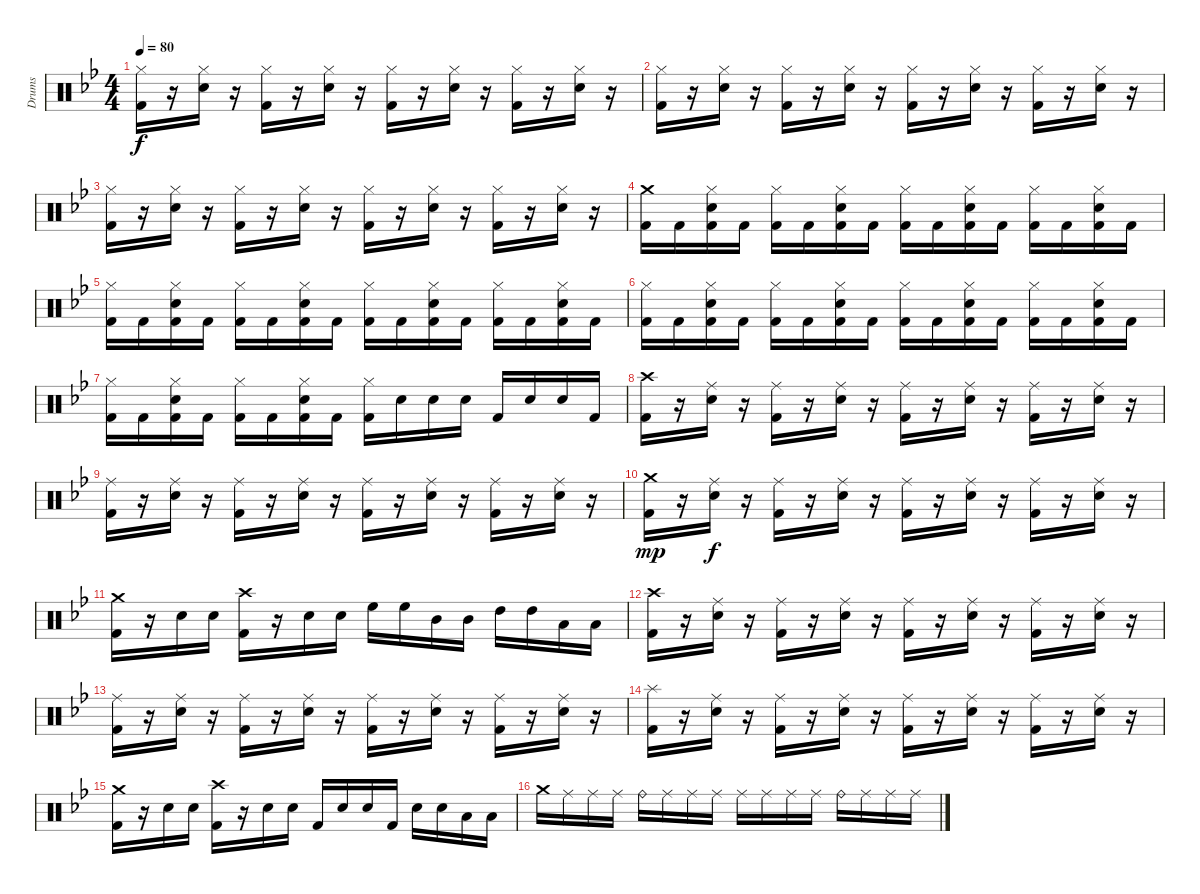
\track ("Drums" "Drums") {instrument percussion}
\staff {score}
\articulation defaults
\ts (4 4)
\tempo 80
\clef neutral
\ks gminor
("Kick (hit) 2" "Hi-Hat (closed)").16{dy f} r.16 ("Electric Snare (hit)" "Hi-Hat (closed)").16 r.16 ("Kick (hit) 2" "Hi-Hat (closed)").16 r.16 ("Electric Snare (hit)" "Hi-Hat (closed)").16 r.16 ("Kick (hit) 2" "Hi-Hat (closed)").16 r.16 ("Electric Snare (hit)" "Hi-Hat (closed)").16 r.16 ("Kick (hit) 2" "Hi-Hat (closed)").16 r.16 ("Electric Snare (hit)" "Hi-Hat (closed)").16 r.16 |
("Kick (hit) 2" "Hi-Hat (closed)").16 r.16 ("Electric Snare (hit)" "Hi-Hat (closed)").16 r.16 ("Kick (hit) 2" "Hi-Hat (closed)").16 r.16 ("Electric Snare (hit)" "Hi-Hat (closed)").16 r.16 ("Kick (hit) 2" "Hi-Hat (closed)").16 r.16 ("Electric Snare (hit)" "Hi-Hat (closed)").16 r.16 ("Kick (hit) 2" "Hi-Hat (closed)").16 r.16 ("Electric Snare (hit)" "Hi-Hat (closed)").16 r.16 |
("Kick (hit) 2" "Hi-Hat (closed)").16 r.16 ("Electric Snare (hit)" "Hi-Hat (closed)").16 r.16 ("Kick (hit) 2" "Hi-Hat (closed)").16 r.16 ("Electric Snare (hit)" "Hi-Hat (closed)").16 r.16 ("Kick (hit) 2" "Hi-Hat (closed)").16 r.16 ("Electric Snare (hit)" "Hi-Hat (closed)").16 r.16 ("Kick (hit) 2" "Hi-Hat (closed)").16 r.16 ("Electric Snare (hit)" "Hi-Hat (closed)").16 r.16 |
("Kick (hit) 2" "Crash medium (hit)").16 "Kick (hit) 2".16 ("Kick (hit) 2" "Electric Snare (hit)" "Hi-Hat (closed)").16 "Kick (hit) 2".16 ("Kick (hit) 2" "Hi-Hat (closed)").16 "Kick (hit) 2".16 ("Kick (hit) 2" "Electric Snare (hit)" "Hi-Hat (closed)").16 "Kick (hit) 2".16 ("Kick (hit) 2" "Hi-Hat (closed)").16 "Kick (hit) 2".16 ("Kick (hit) 2" "Electric Snare (hit)" "Hi-Hat (closed)").16 "Kick (hit) 2".16 ("Kick (hit) 2" "Hi-Hat (closed)").16 "Kick (hit) 2".16 ("Kick (hit) 2" "Electric Snare (hit)" "Hi-Hat (closed)").16 "Kick (hit) 2".16 |
("Kick (hit) 2" "Hi-Hat (closed)").16 "Kick (hit) 2".16 ("Kick (hit) 2" "Electric Snare (hit)" "Hi-Hat (closed)").16 "Kick (hit) 2".16 ("Kick (hit) 2" "Hi-Hat (closed)").16 "Kick (hit) 2".16 ("Kick (hit) 2" "Electric Snare (hit)" "Hi-Hat (closed)").16 "Kick (hit) 2".16 ("Kick (hit) 2" "Hi-Hat (closed)").16 "Kick (hit) 2".16 ("Kick (hit) 2" "Electric Snare (hit)" "Hi-Hat (closed)").16 "Kick (hit) 2".16 ("Kick (hit) 2" "Hi-Hat (closed)").16 "Kick (hit) 2".16 ("Kick (hit) 2" "Electric Snare (hit)" "Hi-Hat (closed)").16 "Kick (hit) 2".16 |
("Kick (hit) 2" "Hi-Hat (closed)").16 "Kick (hit) 2".16 ("Kick (hit) 2" "Electric Snare (hit)" "Hi-Hat (closed)").16 "Kick (hit) 2".16 ("Kick (hit) 2" "Hi-Hat (closed)").16 "Kick (hit) 2".16 ("Kick (hit) 2" "Electric Snare (hit)" "Hi-Hat (closed)").16 "Kick (hit) 2".16 ("Kick (hit) 2" "Hi-Hat (closed)").16 "Kick (hit) 2".16 ("Kick (hit) 2" "Electric Snare (hit)" "Hi-Hat (closed)").16 "Kick (hit) 2".16 ("Kick (hit) 2" "Hi-Hat (closed)").16 "Kick (hit) 2".16 ("Kick (hit) 2" "Electric Snare (hit)" "Hi-Hat (closed)").16 "Kick (hit) 2".16 |
("Kick (hit) 2" "Hi-Hat (closed)").16 "Kick (hit) 2".16 ("Kick (hit) 2" "Electric Snare (hit)" "Hi-Hat (closed)").16 "Kick (hit) 2".16 ("Kick (hit) 2" "Hi-Hat (closed)").16 "Kick (hit) 2".16 ("Kick (hit) 2" "Electric Snare (hit)" "Hi-Hat (closed)").16 "Kick (hit) 2".16 ("Kick (hit) 2" "Hi-Hat (closed)").16 "Electric Snare (hit)".16 "Electric Snare (hit)".16 "Snare (hit) 2".16 "Kick (hit) 2".16 "Snare (hit) 2".16 "Electric Snare (hit)".16 "Kick (hit) 2".16 |
("Kick (hit) 2" "Crash high (hit)").16 r.16 ("Electric Snare (hit)" "Ride (middle)").16 r.16 ("Kick (hit) 2" "Ride (middle)").16 r.16 ("Electric Snare (hit)" "Ride (middle)").16 r.16 ("Kick (hit) 2" "Ride (middle)").16 r.16 ("Electric Snare (hit)" "Ride (middle)").16 r.16 ("Kick (hit) 2" "Ride (middle)").16 r.16 ("Electric Snare (hit)" "Ride (middle)").16 r.16 |
("Kick (hit) 2" "Ride (middle)").16 r.16 ("Electric Snare (hit)" "Ride (middle)").16 r.16 ("Kick (hit) 2" "Ride (middle)").16 r.16 ("Electric Snare (hit)" "Ride (middle)").16 r.16 ("Kick (hit) 2" "Ride (middle)").16 r.16 ("Electric Snare (hit)" "Ride (middle)").16 r.16 ("Kick (hit) 2" "Ride (middle)").16 r.16 ("Electric Snare (hit)" "Ride (middle)").16 r.16 |
("Kick (hit) 2" "Crash medium (hit)").16{dy mp} r.16 ("Electric Snare (hit)" "Ride (middle)").16{dy f} r.16 ("Kick (hit) 2" "Ride (middle)").16 r.16 ("Electric Snare (hit)" "Ride (middle)").16 r.16 ("Kick (hit) 2" "Ride (middle)").16 r.16 ("Electric Snare (hit)" "Ride (middle)").16 r.16 ("Kick (hit) 2" "Ride (middle)").16 r.16 ("Electric Snare (hit)" "Ride (middle)").16 r.16 |
("Kick (hit) 2" "Crash medium (hit)").16 r.16 "Electric Snare (hit)".16 "Electric Snare (hit)".16 ("Kick (hit) 2" "Crash high (hit)").16 r.16 "Electric Snare (hit)".16 "Electric Snare (hit)".16 "High Floor Tom (hit)".16 "High Floor Tom (hit)".16 "Mid Tom (hit)".16 "Mid Tom (hit)".16 "High Tom (hit)".16 "High Tom (hit)".16 "Low Tom (hit)".16 "Low Tom (hit)".16 |
("Kick (hit) 2" "Crash high (hit)").16 r.16 ("Electric Snare (hit)" "Ride (middle)").16 r.16 ("Kick (hit) 2" "Ride (middle)").16 r.16 ("Electric Snare (hit)" "Ride (middle)").16 r.16 ("Kick (hit) 2" "Ride (middle)").16 r.16 ("Electric Snare (hit)" "Ride (middle)").16 r.16 ("Kick (hit) 2" "Ride (middle)").16 r.16 ("Electric Snare (hit)" "Ride (middle)").16 r.16 |
("Kick (hit) 2" "Ride (middle)").16 r.16 ("Electric Snare (hit)" "Ride (middle)").16 r.16 ("Kick (hit) 2" "Ride (middle)").16 r.16 ("Electric Snare (hit)" "Ride (middle)").16 r.16 ("Kick (hit) 2" "Ride (middle)").16 r.16 ("Electric Snare (hit)" "Ride (middle)").16 r.16 ("Kick (hit) 2" "Ride (middle)").16 r.16 ("Electric Snare (hit)" "Ride (middle)").16 r.16 |
("Kick (hit) 2" "Splash (hit)").16 r.16 ("Electric Snare (hit)" "Ride (middle)").16 r.16 ("Kick (hit) 2" "Ride (middle)").16 r.16 ("Electric Snare (hit)" "Ride (middle)").16 r.16 ("Kick (hit) 2" "Ride (middle)").16 r.16 ("Electric Snare (hit)" "Ride (middle)").16 r.16 ("Kick (hit) 2" "Ride (middle)").16 r.16 ("Electric Snare (hit)" "Ride (middle)").16 r.16 |
("Kick (hit) 2" "Crash medium (hit)").16 r.16 "Snare (hit) 2".16 "Electric Snare (hit)".16 ("Kick (hit) 2" "Crash high (hit)").16 r.16 "Electric Snare (hit)".16 "Snare (hit) 2".16 "Kick (hit) 2".16 "Snare (hit) 2".16 "Snare (hit) 2".16 "Kick (hit) 2".16 "Electric Snare (hit)".16 "Electric Snare (hit)".16 "Low Tom (hit)".16 "Low Tom (hit)".16 |
"Crash medium (hit)".16 "Ride (middle)".16 "Ride (middle)".16 "Ride (middle)".16 "Ride (bell)".16 "Ride (middle)".16 "Ride (middle)".16 "Ride (middle)".16 "Ride (middle)".16 "Ride (middle)".16 "Ride (middle)".16 "Ride (middle)".16 "Ride (bell)".16 "Ride (middle)".16 "Ride (middle)".16 "Ride (middle)".16
